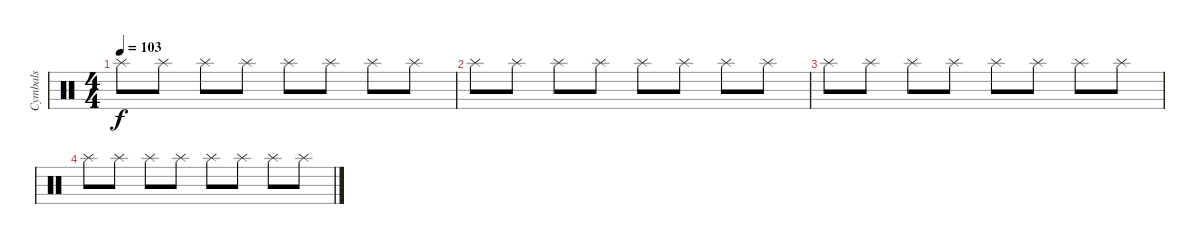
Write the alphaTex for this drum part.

\track ("Cymbals" "Cymbals") {instrument percussion}
\staff {score}
\articulation defaults
\ts (4 4)
\tempo 103
\clef neutral
\ks c "Splash (hit)".8{dy f} "Splash (hit)".8 "Splash (hit)".8 "Splash (hit)".8 "Splash (hit)".8 "Splash (hit)".8 "Splash (hit)".8 "Splash (hit)".8
|
"Splash (hit)".8 "Splash (hit)".8 "Splash (hit)".8 "Splash (hit)".8 "Splash (hit)".8 "Splash (hit)".8 "Splash (hit)".8 "Splash (hit)".8 |
"Splash (hit)".8 "Splash (hit)".8 "Splash (hit)".8 "Splash (hit)".8 "Splash (hit)".8 "Splash (hit)".8 "Splash (hit)".8 "Splash (hit)".8 |
"Splash (hit)".8 "Splash (hit)".8 "Splash (hit)".8 "Splash (hit)".8 "Splash (hit)".8 "Splash (hit)".8 "Splash (hit)".8 "Splash (hit)".8
